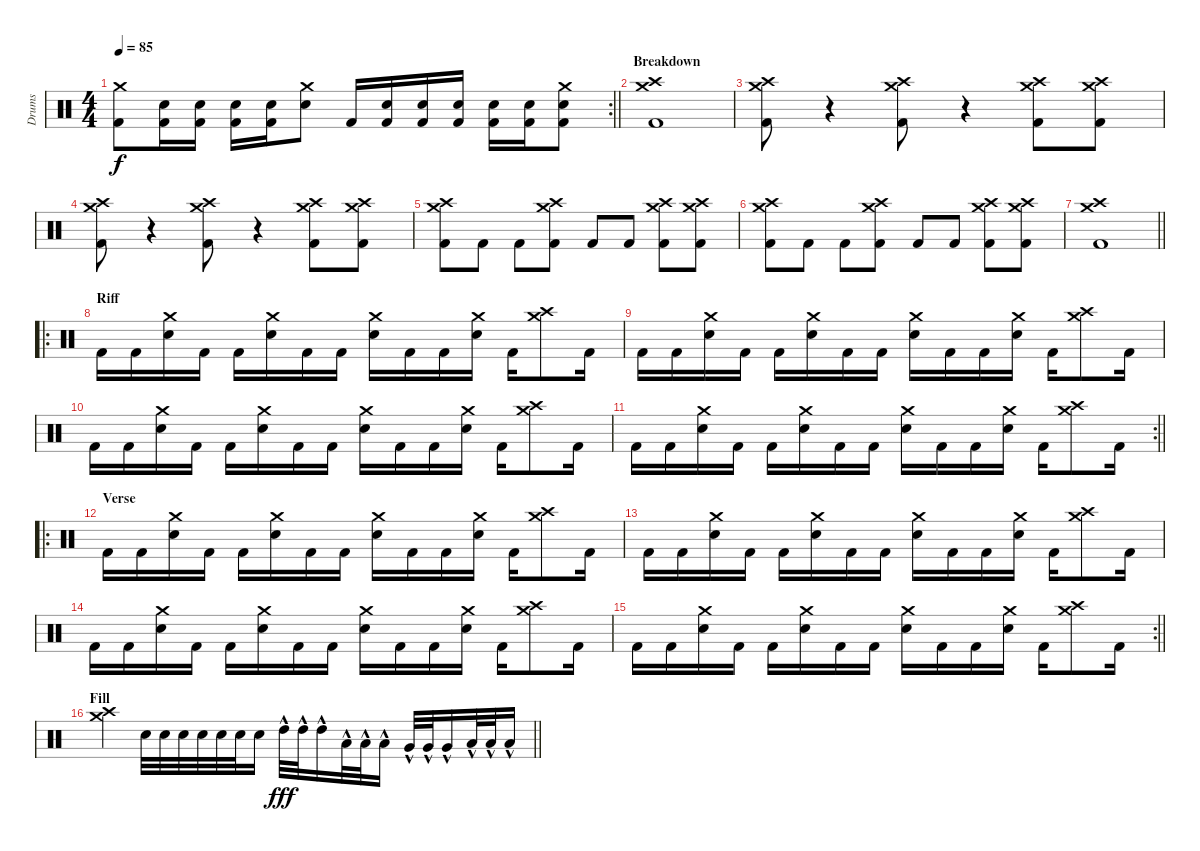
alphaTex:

\track ("Drums" "Drums") {instrument percussion}
\staff {score}
\articulation defaults
\rc 2
\ts (4 4)
\tempo 85
\clef neutral
\barLineRight lightlight
\ks c
("Crash medium (hit)" "Kick (hit) 2").8{dy f} ("Electric Snare (hit)" "Kick (hit) 2").16 ("Electric Snare (hit)" "Kick (hit) 2").16 ("Electric Snare (hit)" "Kick (hit) 2").16 ("Electric Snare (hit)" "Kick (hit) 2").16 ("Crash medium (hit)" "Electric Snare (hit)").8 "Kick (hit) 2".16 ("Electric Snare (hit)" "Kick (hit) 2").16 ("Electric Snare (hit)" "Kick (hit) 2").16 ("Electric Snare (hit)" "Kick (hit) 2").16 ("Electric Snare (hit)" "Kick (hit) 2").16 ("Electric Snare (hit)" "Kick (hit) 2").16 ("Crash medium (hit)" "Electric Snare (hit)" "Kick (hit) 2").8 |
\section ("" "Breakdown")
("Crash medium (hit)" "Crash high (hit)" "Kick (hit) 2").1 |
("Crash medium (hit)" "Crash high (hit)" "Kick (hit) 2").8 r.4 ("Crash medium (hit)" "Crash high (hit)" "Kick (hit) 2").8 r.4 ("Crash medium (hit)" "Crash high (hit)" "Kick (hit) 2").8 ("Crash medium (hit)" "Crash high (hit)" "Kick (hit) 2").8 |
("Crash medium (hit)" "Crash high (hit)" "Kick (hit) 2").8 r.4 ("Crash medium (hit)" "Crash high (hit)" "Kick (hit) 2").8 r.4 ("Crash medium (hit)" "Crash high (hit)" "Kick (hit) 2").8 ("Crash medium (hit)" "Crash high (hit)" "Kick (hit) 2").8 |
("Crash medium (hit)" "Crash high (hit)" "Kick (hit) 2").8 "Kick (hit) 2".8 "Kick (hit) 2".8 ("Crash medium (hit)" "Crash high (hit)" "Kick (hit) 2").8 "Kick (hit) 2".8 "Kick (hit) 2".8 ("Crash medium (hit)" "Crash high (hit)" "Kick (hit) 2").8 ("Crash medium (hit)" "Crash high (hit)" "Kick (hit) 2").8 |
("Crash medium (hit)" "Crash high (hit)" "Kick (hit) 2").8 "Kick (hit) 2".8 "Kick (hit) 2".8 ("Crash medium (hit)" "Crash high (hit)" "Kick (hit) 2").8 "Kick (hit) 2".8 "Kick (hit) 2".8 ("Crash medium (hit)" "Crash high (hit)" "Kick (hit) 2").8 ("Crash medium (hit)" "Crash high (hit)" "Kick (hit) 2").8 |
\barLineRight lightlight
("Crash medium (hit)" "Crash high (hit)" "Kick (hit) 2").1 |
\ro
\section ("" "Riff")
"Kick (hit) 2".16 "Kick (hit) 2".16 ("Crash medium (hit)" "Electric Snare (hit)").16 "Kick (hit) 2".16 "Kick (hit) 2".16 ("Crash medium (hit)" "Electric Snare (hit)").16 "Kick (hit) 2".16 "Kick (hit) 2".16 ("Crash medium (hit)" "Electric Snare (hit)").16 "Kick (hit) 2".16 "Kick (hit) 2".16 ("Crash medium (hit)" "Electric Snare (hit)").16 "Kick (hit) 2".16 ("Crash medium (hit)" "Crash high (hit)").8 "Kick (hit) 2".16 |
"Kick (hit) 2".16 "Kick (hit) 2".16 ("Crash medium (hit)" "Electric Snare (hit)").16 "Kick (hit) 2".16 "Kick (hit) 2".16 ("Crash medium (hit)" "Electric Snare (hit)").16 "Kick (hit) 2".16 "Kick (hit) 2".16 ("Crash medium (hit)" "Electric Snare (hit)").16 "Kick (hit) 2".16 "Kick (hit) 2".16 ("Crash medium (hit)" "Electric Snare (hit)").16 "Kick (hit) 2".16 ("Crash medium (hit)" "Crash high (hit)").8 "Kick (hit) 2".16 |
"Kick (hit) 2".16 "Kick (hit) 2".16 ("Crash medium (hit)" "Electric Snare (hit)").16 "Kick (hit) 2".16 "Kick (hit) 2".16 ("Crash medium (hit)" "Electric Snare (hit)").16 "Kick (hit) 2".16 "Kick (hit) 2".16 ("Crash medium (hit)" "Electric Snare (hit)").16 "Kick (hit) 2".16 "Kick (hit) 2".16 ("Crash medium (hit)" "Electric Snare (hit)").16 "Kick (hit) 2".16 ("Crash medium (hit)" "Crash high (hit)").8 "Kick (hit) 2".16 |
\rc 2
\barLineRight lightlight "Kick (hit) 2".16 "Kick (hit) 2".16
("Crash medium (hit)" "Electric Snare (hit)").16 "Kick (hit) 2".16 "Kick (hit) 2".16 ("Crash medium (hit)" "Electric Snare (hit)").16 "Kick (hit) 2".16 "Kick (hit) 2".16 ("Crash medium (hit)" "Electric Snare (hit)").16 "Kick (hit) 2".16 "Kick (hit) 2".16 ("Crash medium (hit)" "Electric Snare (hit)").16 "Kick (hit) 2".16 ("Crash medium (hit)" "Crash high (hit)").8 "Kick (hit) 2".16 |
\ro
\section ("" "Verse")
"Kick (hit) 2".16 "Kick (hit) 2".16 ("Crash medium (hit)" "Electric Snare (hit)").16 "Kick (hit) 2".16 "Kick (hit) 2".16 ("Crash medium (hit)" "Electric Snare (hit)").16 "Kick (hit) 2".16 "Kick (hit) 2".16 ("Crash medium (hit)" "Electric Snare (hit)").16 "Kick (hit) 2".16 "Kick (hit) 2".16 ("Crash medium (hit)" "Electric Snare (hit)").16 "Kick (hit) 2".16 ("Crash medium (hit)" "Crash high (hit)").8 "Kick (hit) 2".16 |
"Kick (hit) 2".16 "Kick (hit) 2".16 ("Crash medium (hit)" "Electric Snare (hit)").16 "Kick (hit) 2".16 "Kick (hit) 2".16 ("Crash medium (hit)" "Electric Snare (hit)").16 "Kick (hit) 2".16 "Kick (hit) 2".16 ("Crash medium (hit)" "Electric Snare (hit)").16 "Kick (hit) 2".16 "Kick (hit) 2".16 ("Crash medium (hit)" "Electric Snare (hit)").16 "Kick (hit) 2".16 ("Crash medium (hit)" "Crash high (hit)").8 "Kick (hit) 2".16 |
"Kick (hit) 2".16 "Kick (hit) 2".16 ("Crash medium (hit)" "Electric Snare (hit)").16 "Kick (hit) 2".16 "Kick (hit) 2".16 ("Crash medium (hit)" "Electric Snare (hit)").16 "Kick (hit) 2".16 "Kick (hit) 2".16 ("Crash medium (hit)" "Electric Snare (hit)").16 "Kick (hit) 2".16 "Kick (hit) 2".16 ("Crash medium (hit)" "Electric Snare (hit)").16 "Kick (hit) 2".16 ("Crash medium (hit)" "Crash high (hit)").8 "Kick (hit) 2".16 |
\rc 2
\barLineRight lightlight "Kick (hit) 2".16 "Kick (hit) 2".16
("Crash medium (hit)" "Electric Snare (hit)").16 "Kick (hit) 2".16 "Kick (hit) 2".16 ("Crash medium (hit)" "Electric Snare (hit)").16 "Kick (hit) 2".16 "Kick (hit) 2".16 ("Crash medium (hit)" "Electric Snare (hit)").16 "Kick (hit) 2".16 "Kick (hit) 2".16 ("Crash medium (hit)" "Electric Snare (hit)").16 "Kick (hit) 2".16 ("Crash medium (hit)" "Crash high (hit)").8 "Kick (hit) 2".16 |
\section ("" "Fill")
\barLineRight lightlight
("Crash medium (hit)" "Crash high (hit)").4 "Electric Snare (hit)".32 "Electric Snare (hit)".32 "Electric Snare (hit)".32 "Electric Snare (hit)".32 "Electric Snare (hit)".32 "Electric Snare (hit)".32 "Electric Snare (hit)".16 "High Tom (hit)"{hac}.32{dy fff} "High Tom (hit)"{hac}.32 "High Tom (hit)"{hac}.16 "Low Tom (hit)"{hac}.32 "Low Tom (hit)"{hac}.32 "Low Tom (hit)"{hac}.16 "Very Low Tom (hit)"{hac}.32 "Very Low Tom (hit)"{hac}.32 "Very Low Tom (hit)"{hac}.16 "Low Floor Tom (hit)"{hac}.32 "Low Floor Tom (hit)"{hac}.32 "Low Floor Tom (hit)"{hac}.16
